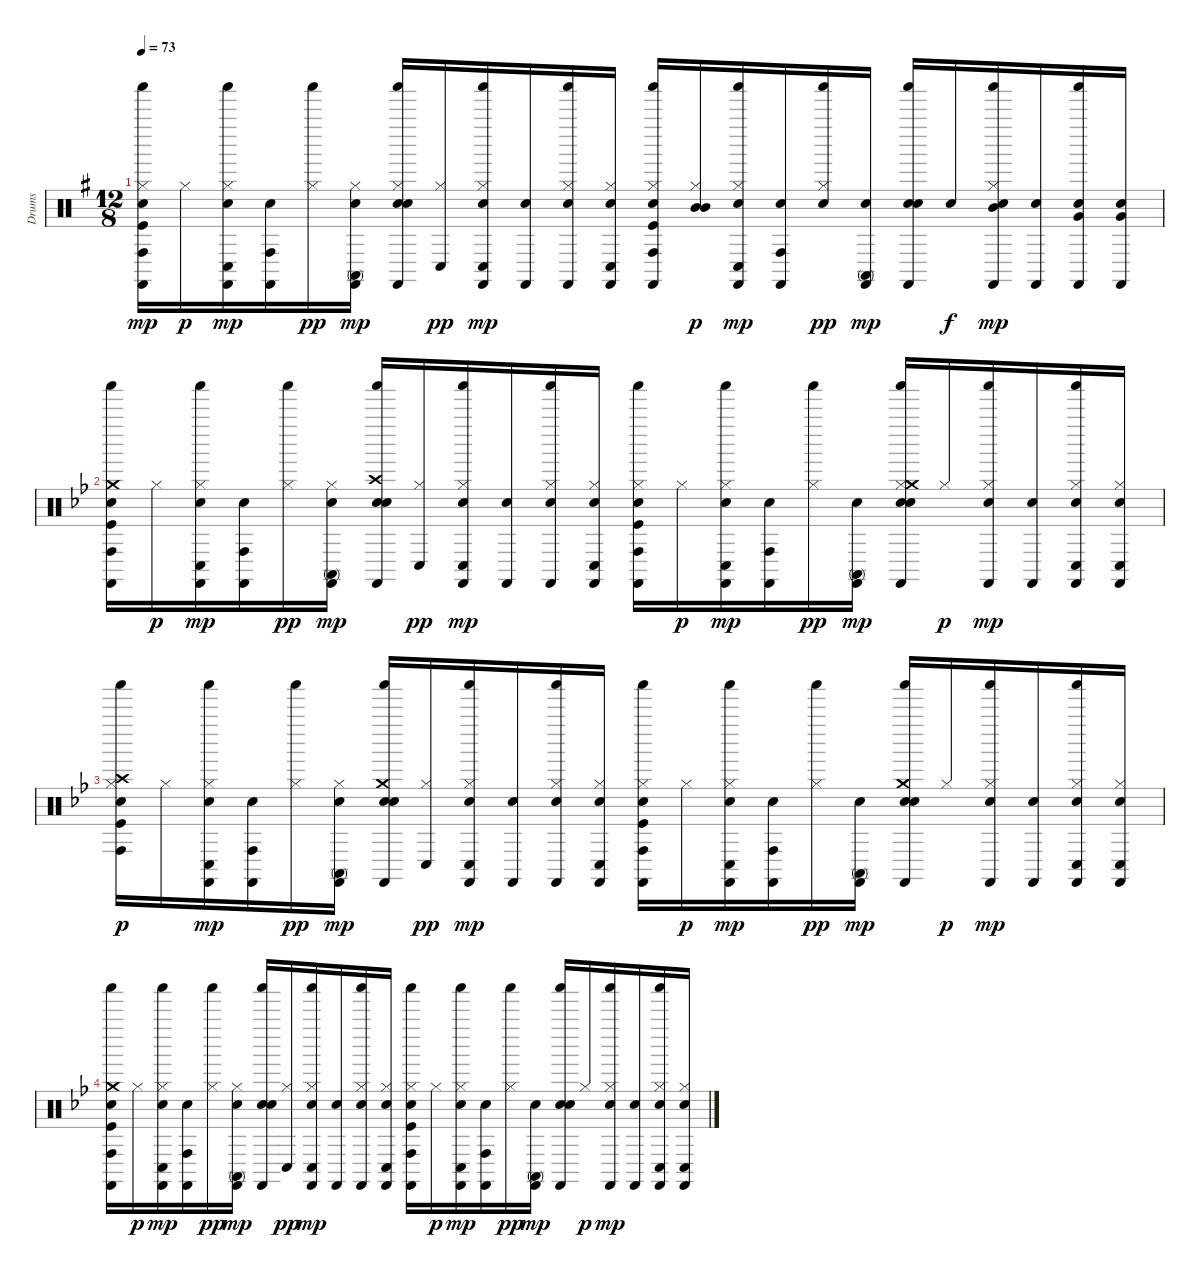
\track ("Drums" "Drums") {instrument percussion}
\staff {score}
\articulation defaults
\ts (12 8)
\tempo 73
\clef neutral
\ks g
("Kick (hit)" "Hand Clap (hit)" "Hi-Hat (closed)" "Conga high (hit)" "Shaker (hit)" "Castanets (hit)").16{dy mp} "Hi-Hat (closed)".16{dy p} ("Hand Clap (hit)" "Hi-Hat (closed)" "Conga low (hit)" "Shaker (hit)" "Castanets (hit)").16{dy mp} ("Hand Clap (hit)" "Conga high (hit)" "Castanets (hit)").16 ("Hi-Hat (closed)" "Shaker (hit)").16{dy pp} ("Hand Clap (hit)" "Hi-Hat (closed)" "Conga high (mute)" "Castanets (hit)").16{dy mp} ("Hand Clap (hit)" "Electric Snare (hit)" "Hi-Hat (closed)" "Shaker (hit)" "Castanets (hit)").16 ("Hi-Hat (closed)" "Conga low (hit)").16{dy pp} ("Hand Clap (hit)" "Hi-Hat (closed)" "Conga low (hit)" "Shaker (hit)" "Castanets (hit)").16{dy mp} ("Hand Clap (hit)" "Castanets (hit)").16 ("Hand Clap (hit)" "Hi-Hat (closed)" "Shaker (hit)" "Castanets (hit)").16 ("Hand Clap (hit)" "Hi-Hat (closed)" "Conga low (hit)" "Castanets (hit)").16 ("Kick (hit)" "Hand Clap (hit)" "Hi-Hat (closed)" "Conga high (hit)" "Shaker (hit)" "Castanets (hit)").16 ("Hi-Hat (closed)" "Mid Tom (hit)" "Mid Tom (hit)").16{dy p} ("Hand Clap (hit)" "Hi-Hat (closed)" "Conga low (hit)" "Shaker (hit)" "Castanets (hit)").16{dy mp} ("Hand Clap (hit)" "Conga high (hit)" "Castanets (hit)").16 ("Electric Snare (hit)" "Hi-Hat (closed)" "Shaker (hit)").16{dy pp} ("Hand Clap (hit)" "Conga high (mute)" "Castanets (hit)").16{dy mp} ("Hand Clap (hit)" "Electric Snare (hit)" "Shaker (hit)" "Castanets (hit)").16 "Electric Snare (hit)".16{dy f} ("Hand Clap (hit)" "Hi-Hat (closed)" "Mid Tom (hit)" "Shaker (hit)" "Castanets (hit)").16{dy mp} ("Hand Clap (hit)" "Castanets (hit)").16 ("Hand Clap (hit)" "Very Low Tom (hit)" "Shaker (hit)" "Castanets (hit)").16 ("Hand Clap (hit)" "Very Low Tom (hit)" "Castanets (hit)").16 |
\ks bb
("Kick (hit)" "Hand Clap (hit)" "Crash medium (hit)" "Conga high (hit)" "Shaker (hit)" "Castanets (hit)").16 "Hi-Hat (closed)".16{dy p} ("Hand Clap (hit)" "Hi-Hat (closed)" "Conga low (hit)" "Shaker (hit)" "Castanets (hit)").16{dy mp} ("Hand Clap (hit)" "Conga high (hit)" "Castanets (hit)").16 ("Hi-Hat (closed)" "Shaker (hit)").16{dy pp} ("Hand Clap (hit)" "Hi-Hat (closed)" "Conga high (mute)" "Castanets (hit)").16{dy mp} ("Hand Clap (hit)" "Electric Snare (hit)" "Crash high (hit)" "Shaker (hit)" "Castanets (hit)").16 ("Hi-Hat (closed)" "Conga low (hit)").16{dy pp} ("Hand Clap (hit)" "Hi-Hat (closed)" "Conga low (hit)" "Shaker (hit)" "Castanets (hit)").16{dy mp} ("Hand Clap (hit)" "Castanets (hit)").16 ("Hand Clap (hit)" "Hi-Hat (closed)" "Shaker (hit)" "Castanets (hit)").16 ("Hand Clap (hit)" "Hi-Hat (closed)" "Conga low (hit)" "Castanets (hit)").16 ("Kick (hit)" "Hand Clap (hit)" "Hi-Hat (closed)" "Conga high (hit)" "Shaker (hit)" "Castanets (hit)").16 "Hi-Hat (closed)".16{dy p} ("Hand Clap (hit)" "Hi-Hat (closed)" "Conga low (hit)" "Shaker (hit)" "Castanets (hit)").16{dy mp} ("Hand Clap (hit)" "Conga high (hit)" "Castanets (hit)").16 ("Hi-Hat (closed)" "Shaker (hit)").16{dy pp} ("Hand Clap (hit)" "Conga high (mute)" "Castanets (hit)").16{dy mp} ("Hand Clap (hit)" "Electric Snare (hit)" "Hi-Hat (closed)" "Crash medium (hit)" "Shaker (hit)" "Castanets (hit)").16 "Hi-Hat (closed)".16{dy p} ("Hand Clap (hit)" "Hi-Hat (closed)" "Shaker (hit)" "Castanets (hit)").16{dy mp} ("Hand Clap (hit)" "Castanets (hit)").16 ("Hand Clap (hit)" "Hi-Hat (closed)" "Conga low (hit)" "Shaker (hit)" "Castanets (hit)").16 ("Hand Clap (hit)" "Hi-Hat (closed)" "Conga low (hit)" "Castanets (hit)").16 |
("Kick (hit)" "Hand Clap (hit)" "Hi-Hat (closed)" "Crash high (hit)" "Conga high (hit)" "Shaker (hit)").16{dy p} "Hi-Hat (closed)".16 ("Hand Clap (hit)" "Hi-Hat (closed)" "Conga low (hit)" "Shaker (hit)" "Castanets (hit)").16{dy mp} ("Hand Clap (hit)" "Conga high (hit)" "Castanets (hit)").16 ("Hi-Hat (closed)" "Shaker (hit)").16{dy pp} ("Hand Clap (hit)" "Hi-Hat (closed)" "Conga high (mute)" "Castanets (hit)").16{dy mp} ("Hand Clap (hit)" "Electric Snare (hit)" "Crash medium (hit)" "Shaker (hit)" "Castanets (hit)").16 ("Hi-Hat (closed)" "Conga low (hit)").16{dy pp} ("Hand Clap (hit)" "Hi-Hat (closed)" "Conga low (hit)" "Shaker (hit)" "Castanets (hit)").16{dy mp} ("Hand Clap (hit)" "Castanets (hit)").16 ("Hand Clap (hit)" "Hi-Hat (closed)" "Shaker (hit)" "Castanets (hit)").16 ("Hand Clap (hit)" "Hi-Hat (closed)" "Conga low (hit)" "Castanets (hit)").16 ("Kick (hit)" "Hand Clap (hit)" "Hi-Hat (closed)" "Conga high (hit)" "Shaker (hit)" "Castanets (hit)").16 "Hi-Hat (closed)".16{dy p} ("Hand Clap (hit)" "Hi-Hat (closed)" "Conga low (hit)" "Shaker (hit)" "Castanets (hit)").16{dy mp} ("Hand Clap (hit)" "Conga high (hit)" "Castanets (hit)").16 ("Hi-Hat (closed)" "Shaker (hit)").16{dy pp} ("Hand Clap (hit)" "Conga high (mute)" "Castanets (hit)").16{dy mp} ("Hand Clap (hit)" "Electric Snare (hit)" "Crash medium (hit)" "Shaker (hit)" "Castanets (hit)").16 "Hi-Hat (closed)".16{dy p} ("Hand Clap (hit)" "Hi-Hat (closed)" "Shaker (hit)" "Castanets (hit)").16{dy mp} ("Hand Clap (hit)" "Castanets (hit)").16 ("Hand Clap (hit)" "Hi-Hat (closed)" "Conga low (hit)" "Shaker (hit)" "Castanets (hit)").16 ("Hand Clap (hit)" "Hi-Hat (closed)" "Conga low (hit)" "Castanets (hit)").16 |
("Kick (hit)" "Hand Clap (hit)" "Crash medium (hit)" "Conga high (hit)" "Shaker (hit)" "Castanets (hit)").16 "Hi-Hat (closed)".16{dy p} ("Hand Clap (hit)" "Hi-Hat (closed)" "Conga low (hit)" "Shaker (hit)" "Castanets (hit)").16{dy mp} ("Hand Clap (hit)" "Conga high (hit)" "Castanets (hit)").16 ("Hi-Hat (closed)" "Shaker (hit)").16{dy pp} ("Hand Clap (hit)" "Hi-Hat (closed)" "Conga high (mute)" "Castanets (hit)").16{dy mp} ("Hand Clap (hit)" "Electric Snare (hit)" "Shaker (hit)" "Castanets (hit)").16 ("Hi-Hat (closed)" "Conga low (hit)").16{dy pp} ("Hand Clap (hit)" "Hi-Hat (closed)" "Conga low (hit)" "Shaker (hit)" "Castanets (hit)").16{dy mp} ("Hand Clap (hit)" "Castanets (hit)").16 ("Hand Clap (hit)" "Hi-Hat (closed)" "Shaker (hit)" "Castanets (hit)").16 ("Hand Clap (hit)" "Hi-Hat (closed)" "Conga low (hit)" "Castanets (hit)").16 ("Kick (hit)" "Hand Clap (hit)" "Hi-Hat (closed)" "Conga high (hit)" "Shaker (hit)" "Castanets (hit)").16 "Hi-Hat (closed)".16{dy p} ("Hand Clap (hit)" "Hi-Hat (closed)" "Conga low (hit)" "Shaker (hit)" "Castanets (hit)").16{dy mp} ("Hand Clap (hit)" "Conga high (hit)" "Castanets (hit)").16 ("Hi-Hat (closed)" "Shaker (hit)").16{dy pp} ("Hand Clap (hit)" "Conga high (mute)" "Castanets (hit)").16{dy mp} ("Hand Clap (hit)" "Electric Snare (hit)" "Shaker (hit)" "Castanets (hit)").16 "Hi-Hat (closed)".16{dy p} ("Hand Clap (hit)" "Hi-Hat (closed)" "Shaker (hit)" "Castanets (hit)").16{dy mp} ("Hand Clap (hit)" "Castanets (hit)").16 ("Hand Clap (hit)" "Hi-Hat (closed)" "Conga low (hit)" "Shaker (hit)" "Castanets (hit)").16 ("Hand Clap (hit)" "Hi-Hat (closed)" "Conga low (hit)" "Castanets (hit)").16
